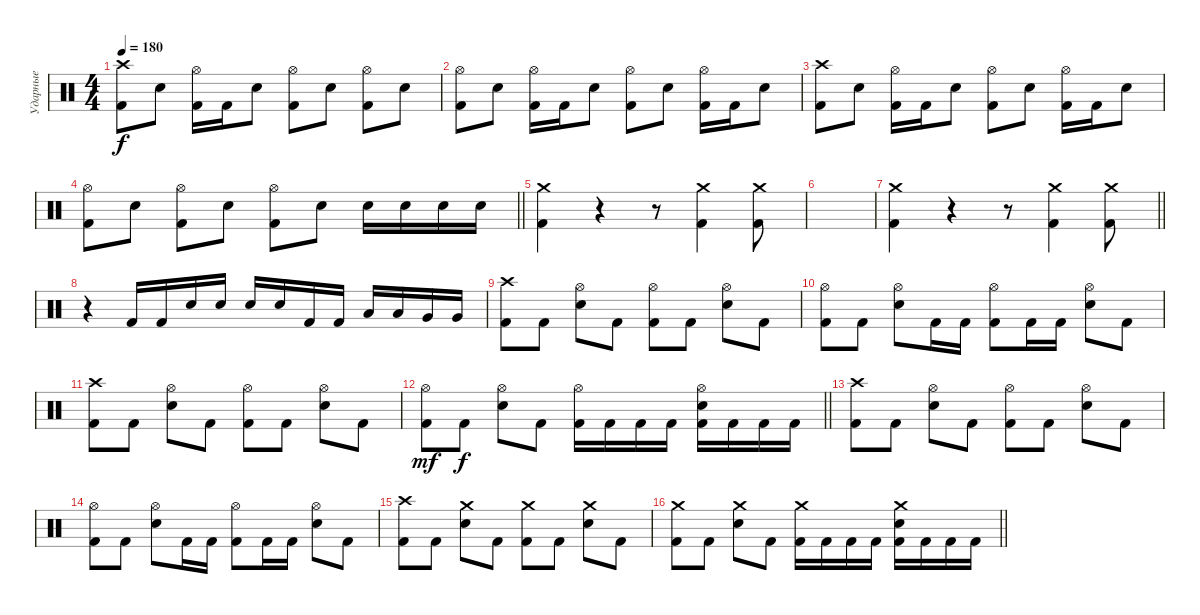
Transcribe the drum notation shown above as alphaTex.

\track ("Ударные" "Ударные") {instrument percussion}
\staff {score}
\articulation defaults
\ts (4 4)
\section ("" "")
\tempo 180
\clef neutral
\ks c
("Crash high (hit)" "Kick (hit) 2").8{dy f} "Electric Snare (hit)".8 ("Hi-Hat (open)" "Kick (hit) 2").16 "Kick (hit) 2".16 "Electric Snare (hit)".8 ("Hi-Hat (open)" "Kick (hit) 2").8 "Electric Snare (hit)".8 ("Hi-Hat (open)" "Kick (hit) 2").8 "Electric Snare (hit)".8 |
("Hi-Hat (open)" "Kick (hit) 2").8 "Electric Snare (hit)".8 ("Hi-Hat (open)" "Kick (hit) 2").16 "Kick (hit) 2".16 "Electric Snare (hit)".8 ("Hi-Hat (open)" "Kick (hit) 2").8 "Electric Snare (hit)".8 ("Hi-Hat (open)" "Kick (hit) 2").16 "Kick (hit) 2".16 "Electric Snare (hit)".8 |
("Crash high (hit)" "Kick (hit) 2").8 "Electric Snare (hit)".8 ("Hi-Hat (open)" "Kick (hit) 2").16 "Kick (hit) 2".16 "Electric Snare (hit)".8 ("Hi-Hat (open)" "Kick (hit) 2").8 "Electric Snare (hit)".8 ("Hi-Hat (open)" "Kick (hit) 2").16 "Kick (hit) 2".16 "Electric Snare (hit)".8 |
\barLineRight lightlight
("Hi-Hat (open)" "Kick (hit) 2").8 "Electric Snare (hit)".8 ("Hi-Hat (open)" "Kick (hit) 2").8 "Electric Snare (hit)".8 ("Hi-Hat (open)" "Kick (hit) 2").8 "Electric Snare (hit)".8 "Electric Snare (hit)".16 "Electric Snare (hit)".16 "Electric Snare (hit)".16 "Electric Snare (hit)".16 |
\section ("" "")
("Crash medium (hit)" "Kick (hit) 2").4 r.4 r.8 ("Crash medium (hit)" "Kick (hit) 2").4 ("Crash medium (hit)" "Kick (hit) 2").8 |
|
\barLineRight lightlight
("Crash medium (hit)" "Kick (hit) 2").4 r.4 r.8 ("Crash medium (hit)" "Kick (hit) 2").4 ("Crash medium (hit)" "Kick (hit) 2").8 |
r.4 "Kick (hit) 2".16 "Kick (hit) 2".16 "Electric Snare (hit)".16 "Electric Snare (hit)".16 "Electric Snare (hit)".16 "Electric Snare (hit)".16 "Kick (hit) 2".16 "Kick (hit) 2".16 "Low Tom (hit)".16 "Low Tom (hit)".16 "Very Low Tom (hit)".16 "Very Low Tom (hit)".16 |
("Crash high (hit)" "Kick (hit) 2").8 "Kick (hit) 2".8 ("Hi-Hat (open)" "Electric Snare (hit)").8 "Kick (hit) 2".8 ("Hi-Hat (open)" "Kick (hit) 2").8 "Kick (hit) 2".8 ("Hi-Hat (open)" "Electric Snare (hit)").8 "Kick (hit) 2".8 |
("Hi-Hat (open)" "Kick (hit) 2").8 "Kick (hit) 2".8 ("Hi-Hat (open)" "Electric Snare (hit)").8 "Kick (hit) 2".16 "Kick (hit) 2".16 ("Hi-Hat (open)" "Kick (hit) 2").8 "Kick (hit) 2".16 "Kick (hit) 2".16 ("Hi-Hat (open)" "Electric Snare (hit)").8 "Kick (hit) 2".8 |
("Crash high (hit)" "Kick (hit) 2").8 "Kick (hit) 2".8 ("Hi-Hat (open)" "Electric Snare (hit)").8 "Kick (hit) 2".8 ("Hi-Hat (open)" "Kick (hit) 2").8 "Kick (hit) 2".8 ("Hi-Hat (open)" "Electric Snare (hit)").8 "Kick (hit) 2".8 |
\barLineRight lightlight
("Hi-Hat (open)" "Kick (hit) 2").8{dy mf} "Kick (hit) 2".8{dy f} ("Hi-Hat (open)" "Electric Snare (hit)").8 "Kick (hit) 2".8 ("Hi-Hat (open)" "Kick (hit) 2").16 "Kick (hit) 2".16 "Kick (hit) 2".16 "Kick (hit) 2".16 ("Hi-Hat (open)" "Electric Snare (hit)" "Kick (hit) 2").16 "Kick (hit) 2".16 "Kick (hit) 2".16 "Kick (hit) 2".16 |
\section ("" "")
("Crash high (hit)" "Kick (hit) 2").8 "Kick (hit) 2".8 ("Hi-Hat (open)" "Electric Snare (hit)").8 "Kick (hit) 2".8 ("Hi-Hat (open)" "Kick (hit) 2").8 "Kick (hit) 2".8 ("Hi-Hat (open)" "Electric Snare (hit)").8 "Kick (hit) 2".8 |
("Hi-Hat (open)" "Kick (hit) 2").8 "Kick (hit) 2".8 ("Hi-Hat (open)" "Electric Snare (hit)").8 "Kick (hit) 2".16 "Kick (hit) 2".16 ("Hi-Hat (open)" "Kick (hit) 2").8 "Kick (hit) 2".16 "Kick (hit) 2".16 ("Hi-Hat (open)" "Electric Snare (hit)").8 "Kick (hit) 2".8 |
("Crash high (hit)" "Kick (hit) 2").8 "Kick (hit) 2".8 ("Crash medium (hit)" "Electric Snare (hit)").8 "Kick (hit) 2".8 ("Crash medium (hit)" "Kick (hit) 2").8 "Kick (hit) 2".8 ("Crash medium (hit)" "Electric Snare (hit)").8 "Kick (hit) 2".8 |
\barLineRight lightlight
("Crash medium (hit)" "Kick (hit) 2").8 "Kick (hit) 2".8 ("Crash medium (hit)" "Electric Snare (hit)").8 "Kick (hit) 2".8 ("Crash medium (hit)" "Kick (hit) 2").16 "Kick (hit) 2".16 "Kick (hit) 2".16 "Kick (hit) 2".16 ("Crash medium (hit)" "Electric Snare (hit)" "Kick (hit) 2").16 "Kick (hit) 2".16 "Kick (hit) 2".16 "Kick (hit) 2".16
